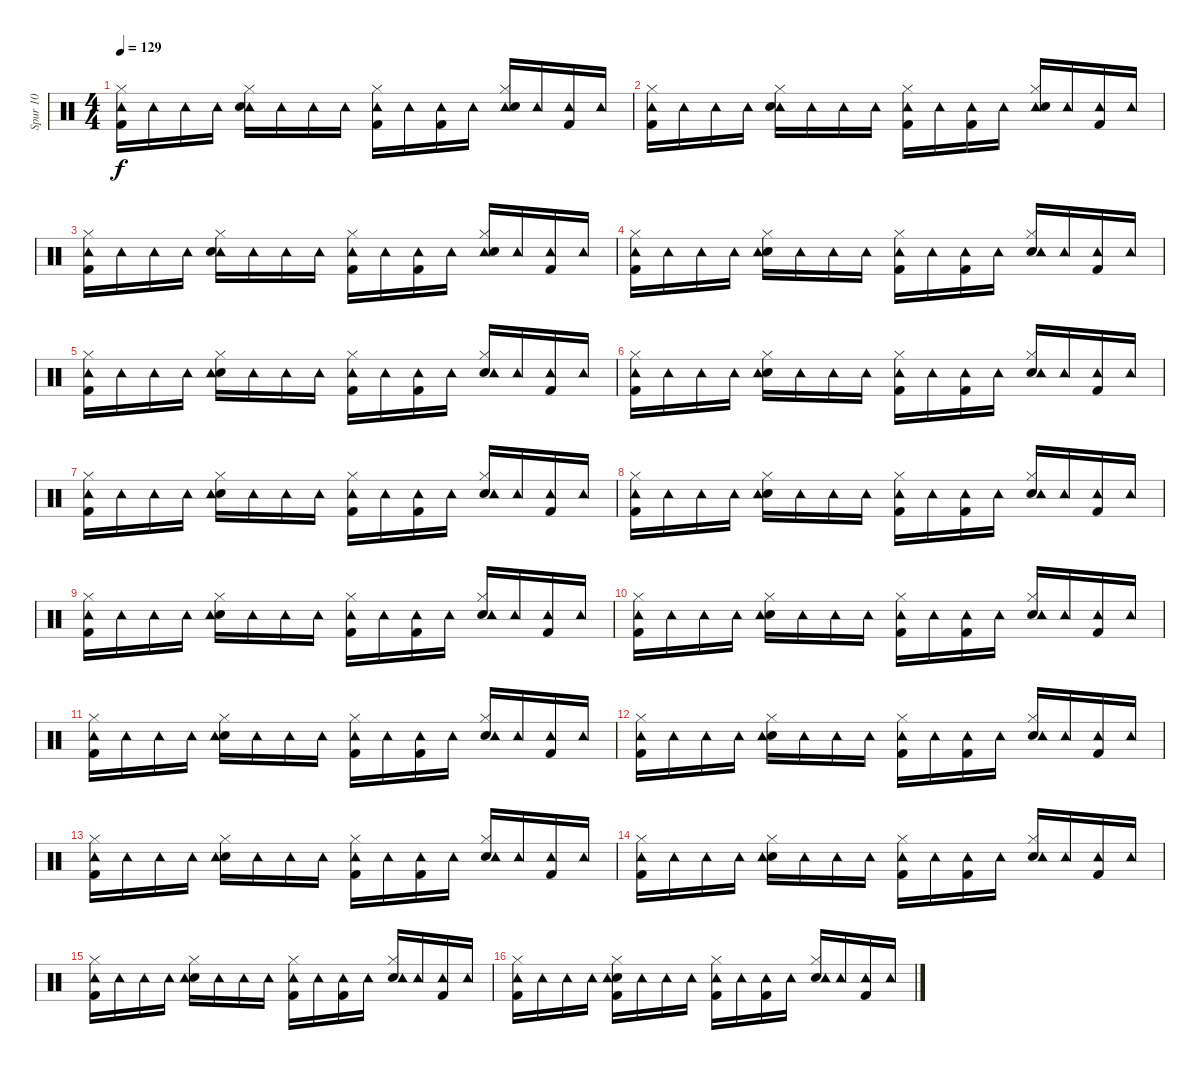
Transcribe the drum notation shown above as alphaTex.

\track ("Spur 10" "Spur 10") {instrument percussion}
\staff {score}
\articulation defaults
\ts (4 4)
\tempo 129
\clef neutral
\ks c
("Tambourine (hit)" "Kick (hit) 2" "Hi-Hat (closed)").16{dy f} "Tambourine (hit)".16 "Tambourine (hit)".16 "Tambourine (hit)".16 ("Tambourine (hit)" "Snare (hit) 2" "Hi-Hat (closed)").16 "Tambourine (hit)".16 "Tambourine (hit)".16 "Tambourine (hit)".16 ("Tambourine (hit)" "Kick (hit) 2" "Hi-Hat (closed)").16 "Tambourine (hit)".16 ("Tambourine (hit)" "Kick (hit) 2").16 "Tambourine (hit)".16 ("Tambourine (hit)" "Snare (hit) 2" "Hi-Hat (closed)").16 "Tambourine (hit)".16 ("Tambourine (hit)" "Kick (hit) 2").16 "Tambourine (hit)".16 |
("Tambourine (hit)" "Kick (hit) 2" "Hi-Hat (closed)").16 "Tambourine (hit)".16 "Tambourine (hit)".16 "Tambourine (hit)".16 ("Tambourine (hit)" "Snare (hit) 2" "Hi-Hat (closed)").16 "Tambourine (hit)".16 "Tambourine (hit)".16 "Tambourine (hit)".16 ("Tambourine (hit)" "Kick (hit) 2" "Hi-Hat (closed)").16 "Tambourine (hit)".16 ("Tambourine (hit)" "Kick (hit) 2").16 "Tambourine (hit)".16 ("Tambourine (hit)" "Snare (hit) 2" "Hi-Hat (closed)").16 "Tambourine (hit)".16 ("Tambourine (hit)" "Kick (hit) 2").16 "Tambourine (hit)".16 |
("Tambourine (hit)" "Kick (hit) 2" "Hi-Hat (closed)").16 "Tambourine (hit)".16 "Tambourine (hit)".16 "Tambourine (hit)".16 ("Tambourine (hit)" "Snare (hit) 2" "Hi-Hat (closed)").16 "Tambourine (hit)".16 "Tambourine (hit)".16 "Tambourine (hit)".16 ("Tambourine (hit)" "Kick (hit) 2" "Hi-Hat (closed)").16 "Tambourine (hit)".16 ("Tambourine (hit)" "Kick (hit) 2").16 "Tambourine (hit)".16 ("Tambourine (hit)" "Snare (hit) 2" "Hi-Hat (closed)").16 "Tambourine (hit)".16 ("Tambourine (hit)" "Kick (hit) 2").16 "Tambourine (hit)".16 |
("Hi-Hat (closed)" "Kick (hit) 2" "Tambourine (hit)").16 "Tambourine (hit)".16 "Tambourine (hit)".16 "Tambourine (hit)".16 ("Hi-Hat (closed)" "Snare (hit) 2" "Tambourine (hit)").16 "Tambourine (hit)".16 "Tambourine (hit)".16 "Tambourine (hit)".16 ("Hi-Hat (closed)" "Kick (hit) 2" "Tambourine (hit)").16 "Tambourine (hit)".16 ("Kick (hit) 2" "Tambourine (hit)").16 "Tambourine (hit)".16 ("Hi-Hat (closed)" "Snare (hit) 2" "Tambourine (hit)").16 "Tambourine (hit)".16 ("Kick (hit) 2" "Tambourine (hit)").16 "Tambourine (hit)".16 |
("Hi-Hat (closed)" "Kick (hit) 2" "Tambourine (hit)").16 "Tambourine (hit)".16 "Tambourine (hit)".16 "Tambourine (hit)".16 ("Hi-Hat (closed)" "Snare (hit) 2" "Tambourine (hit)").16 "Tambourine (hit)".16 "Tambourine (hit)".16 "Tambourine (hit)".16 ("Hi-Hat (closed)" "Kick (hit) 2" "Tambourine (hit)").16 "Tambourine (hit)".16 ("Kick (hit) 2" "Tambourine (hit)").16 "Tambourine (hit)".16 ("Hi-Hat (closed)" "Snare (hit) 2" "Tambourine (hit)").16 "Tambourine (hit)".16 ("Kick (hit) 2" "Tambourine (hit)").16 "Tambourine (hit)".16 |
("Hi-Hat (closed)" "Kick (hit) 2" "Tambourine (hit)").16 "Tambourine (hit)".16 "Tambourine (hit)".16 "Tambourine (hit)".16 ("Hi-Hat (closed)" "Snare (hit) 2" "Tambourine (hit)").16 "Tambourine (hit)".16 "Tambourine (hit)".16 "Tambourine (hit)".16 ("Hi-Hat (closed)" "Kick (hit) 2" "Tambourine (hit)").16 "Tambourine (hit)".16 ("Kick (hit) 2" "Tambourine (hit)").16 "Tambourine (hit)".16 ("Hi-Hat (closed)" "Snare (hit) 2" "Tambourine (hit)").16 "Tambourine (hit)".16 ("Kick (hit) 2" "Tambourine (hit)").16 "Tambourine (hit)".16 |
("Hi-Hat (closed)" "Kick (hit) 2" "Tambourine (hit)").16 "Tambourine (hit)".16 "Tambourine (hit)".16 "Tambourine (hit)".16 ("Hi-Hat (closed)" "Snare (hit) 2" "Tambourine (hit)").16 "Tambourine (hit)".16 "Tambourine (hit)".16 "Tambourine (hit)".16 ("Hi-Hat (closed)" "Kick (hit) 2" "Tambourine (hit)").16 "Tambourine (hit)".16 ("Kick (hit) 2" "Tambourine (hit)").16 "Tambourine (hit)".16 ("Hi-Hat (closed)" "Snare (hit) 2" "Tambourine (hit)").16 "Tambourine (hit)".16 ("Kick (hit) 2" "Tambourine (hit)").16 "Tambourine (hit)".16 |
("Hi-Hat (closed)" "Kick (hit) 2" "Tambourine (hit)").16 "Tambourine (hit)".16 "Tambourine (hit)".16 "Tambourine (hit)".16 ("Hi-Hat (closed)" "Snare (hit) 2" "Tambourine (hit)").16 "Tambourine (hit)".16 "Tambourine (hit)".16 "Tambourine (hit)".16 ("Hi-Hat (closed)" "Kick (hit) 2" "Tambourine (hit)").16 "Tambourine (hit)".16 ("Kick (hit) 2" "Tambourine (hit)").16 "Tambourine (hit)".16 ("Hi-Hat (closed)" "Snare (hit) 2" "Tambourine (hit)").16 "Tambourine (hit)".16 ("Kick (hit) 2" "Tambourine (hit)").16 "Tambourine (hit)".16 |
("Hi-Hat (closed)" "Kick (hit) 2" "Tambourine (hit)").16 "Tambourine (hit)".16 "Tambourine (hit)".16 "Tambourine (hit)".16 ("Hi-Hat (closed)" "Snare (hit) 2" "Tambourine (hit)").16 "Tambourine (hit)".16 "Tambourine (hit)".16 "Tambourine (hit)".16 ("Hi-Hat (closed)" "Kick (hit) 2" "Tambourine (hit)").16 "Tambourine (hit)".16 ("Kick (hit) 2" "Tambourine (hit)").16 "Tambourine (hit)".16 ("Hi-Hat (closed)" "Snare (hit) 2" "Tambourine (hit)").16 "Tambourine (hit)".16 ("Kick (hit) 2" "Tambourine (hit)").16 "Tambourine (hit)".16 |
("Hi-Hat (closed)" "Kick (hit) 2" "Tambourine (hit)").16 "Tambourine (hit)".16 "Tambourine (hit)".16 "Tambourine (hit)".16 ("Hi-Hat (closed)" "Snare (hit) 2" "Tambourine (hit)").16 "Tambourine (hit)".16 "Tambourine (hit)".16 "Tambourine (hit)".16 ("Hi-Hat (closed)" "Kick (hit) 2" "Tambourine (hit)").16 "Tambourine (hit)".16 ("Kick (hit) 2" "Tambourine (hit)").16 "Tambourine (hit)".16 ("Hi-Hat (closed)" "Snare (hit) 2" "Tambourine (hit)").16 "Tambourine (hit)".16 ("Kick (hit) 2" "Tambourine (hit)").16 "Tambourine (hit)".16 |
("Hi-Hat (closed)" "Kick (hit) 2" "Tambourine (hit)").16 "Tambourine (hit)".16 "Tambourine (hit)".16 "Tambourine (hit)".16 ("Hi-Hat (closed)" "Snare (hit) 2" "Tambourine (hit)").16 "Tambourine (hit)".16 "Tambourine (hit)".16 "Tambourine (hit)".16 ("Hi-Hat (closed)" "Kick (hit) 2" "Tambourine (hit)").16 "Tambourine (hit)".16 ("Kick (hit) 2" "Tambourine (hit)").16 "Tambourine (hit)".16 ("Hi-Hat (closed)" "Snare (hit) 2" "Tambourine (hit)").16 "Tambourine (hit)".16 ("Kick (hit) 2" "Tambourine (hit)").16 "Tambourine (hit)".16 |
("Hi-Hat (closed)" "Kick (hit) 2" "Tambourine (hit)").16 "Tambourine (hit)".16 "Tambourine (hit)".16 "Tambourine (hit)".16 ("Hi-Hat (closed)" "Snare (hit) 2" "Tambourine (hit)").16 "Tambourine (hit)".16 "Tambourine (hit)".16 "Tambourine (hit)".16 ("Hi-Hat (closed)" "Kick (hit) 2" "Tambourine (hit)").16 "Tambourine (hit)".16 ("Kick (hit) 2" "Tambourine (hit)").16 "Tambourine (hit)".16 ("Hi-Hat (closed)" "Snare (hit) 2" "Tambourine (hit)").16 "Tambourine (hit)".16 ("Kick (hit) 2" "Tambourine (hit)").16 "Tambourine (hit)".16 |
("Hi-Hat (closed)" "Kick (hit) 2" "Tambourine (hit)").16 "Tambourine (hit)".16 "Tambourine (hit)".16 "Tambourine (hit)".16 ("Hi-Hat (closed)" "Snare (hit) 2" "Tambourine (hit)").16 "Tambourine (hit)".16 "Tambourine (hit)".16 "Tambourine (hit)".16 ("Hi-Hat (closed)" "Kick (hit) 2" "Tambourine (hit)").16 "Tambourine (hit)".16 ("Kick (hit) 2" "Tambourine (hit)").16 "Tambourine (hit)".16 ("Hi-Hat (closed)" "Snare (hit) 2" "Tambourine (hit)").16 "Tambourine (hit)".16 ("Kick (hit) 2" "Tambourine (hit)").16 "Tambourine (hit)".16 |
("Hi-Hat (closed)" "Kick (hit) 2" "Tambourine (hit)").16 "Tambourine (hit)".16 "Tambourine (hit)".16 "Tambourine (hit)".16 ("Hi-Hat (closed)" "Snare (hit) 2" "Tambourine (hit)").16 "Tambourine (hit)".16 "Tambourine (hit)".16 "Tambourine (hit)".16 ("Hi-Hat (closed)" "Kick (hit) 2" "Tambourine (hit)").16 "Tambourine (hit)".16 ("Kick (hit) 2" "Tambourine (hit)").16 "Tambourine (hit)".16 ("Hi-Hat (closed)" "Snare (hit) 2" "Tambourine (hit)").16 "Tambourine (hit)".16 ("Kick (hit) 2" "Tambourine (hit)").16 "Tambourine (hit)".16 |
("Hi-Hat (closed)" "Kick (hit) 2" "Tambourine (hit)").16 "Tambourine (hit)".16 "Tambourine (hit)".16 "Tambourine (hit)".16 ("Hi-Hat (closed)" "Snare (hit) 2" "Tambourine (hit)").16 "Tambourine (hit)".16 "Tambourine (hit)".16 "Tambourine (hit)".16 ("Hi-Hat (closed)" "Kick (hit) 2" "Tambourine (hit)").16 "Tambourine (hit)".16 ("Kick (hit) 2" "Tambourine (hit)").16 "Tambourine (hit)".16 ("Hi-Hat (closed)" "Snare (hit) 2" "Tambourine (hit)").16 "Tambourine (hit)".16 ("Kick (hit) 2" "Tambourine (hit)").16 "Tambourine (hit)".16 |
("Hi-Hat (closed)" "Kick (hit) 2" "Tambourine (hit)").16 "Tambourine (hit)".16 "Tambourine (hit)".16 "Tambourine (hit)".16 ("Kick (hit) 2" "Hi-Hat (closed)" "Snare (hit) 2" "Tambourine (hit)").16 "Tambourine (hit)".16 "Tambourine (hit)".16 "Tambourine (hit)".16 ("Hi-Hat (closed)" "Kick (hit) 2" "Tambourine (hit)").16 "Tambourine (hit)".16 ("Kick (hit) 2" "Tambourine (hit)").16 "Tambourine (hit)".16 ("Hi-Hat (closed)" "Snare (hit) 2" "Tambourine (hit)").16 "Tambourine (hit)".16 ("Kick (hit) 2" "Tambourine (hit)").16 "Tambourine (hit)".16
